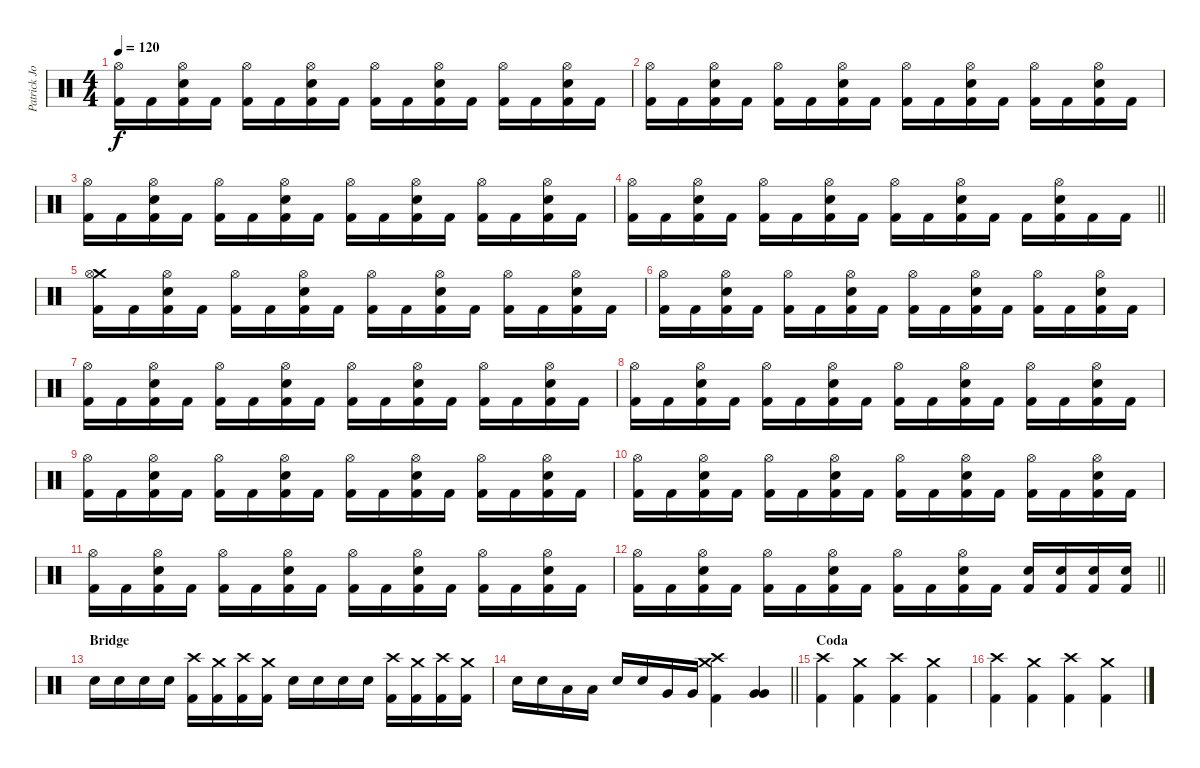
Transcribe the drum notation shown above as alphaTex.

\track ("Patrick Johansson" "Patrick Jo") {instrument percussion}
\staff {score}
\articulation defaults
\ts (4 4)
\tempo 120
\clef neutral
\ks c
("Hi-Hat (open)" "Kick (hit) 2").16{dy f} "Kick (hit) 2".16 ("Hi-Hat (open)" "Snare (hit) 2" "Kick (hit) 2").16 "Kick (hit) 2".16 ("Hi-Hat (open)" "Kick (hit) 2").16 "Kick (hit) 2".16 ("Hi-Hat (open)" "Snare (hit) 2" "Kick (hit) 2").16 "Kick (hit) 2".16 ("Hi-Hat (open)" "Kick (hit) 2").16 "Kick (hit) 2".16 ("Hi-Hat (open)" "Snare (hit) 2" "Kick (hit) 2").16 "Kick (hit) 2".16 ("Hi-Hat (open)" "Kick (hit) 2").16 "Kick (hit) 2".16 ("Hi-Hat (open)" "Snare (hit) 2" "Kick (hit) 2").16 "Kick (hit) 2".16 |
("Hi-Hat (open)" "Kick (hit) 2").16 "Kick (hit) 2".16 ("Hi-Hat (open)" "Snare (hit) 2" "Kick (hit) 2").16 "Kick (hit) 2".16 ("Hi-Hat (open)" "Kick (hit) 2").16 "Kick (hit) 2".16 ("Hi-Hat (open)" "Snare (hit) 2" "Kick (hit) 2").16 "Kick (hit) 2".16 ("Hi-Hat (open)" "Kick (hit) 2").16 "Kick (hit) 2".16 ("Hi-Hat (open)" "Snare (hit) 2" "Kick (hit) 2").16 "Kick (hit) 2".16 ("Hi-Hat (open)" "Kick (hit) 2").16 "Kick (hit) 2".16 ("Hi-Hat (open)" "Snare (hit) 2" "Kick (hit) 2").16 "Kick (hit) 2".16 |
("Hi-Hat (open)" "Kick (hit) 2").16 "Kick (hit) 2".16 ("Hi-Hat (open)" "Snare (hit) 2" "Kick (hit) 2").16 "Kick (hit) 2".16 ("Hi-Hat (open)" "Kick (hit) 2").16 "Kick (hit) 2".16 ("Hi-Hat (open)" "Snare (hit) 2" "Kick (hit) 2").16 "Kick (hit) 2".16 ("Hi-Hat (open)" "Kick (hit) 2").16 "Kick (hit) 2".16 ("Hi-Hat (open)" "Snare (hit) 2" "Kick (hit) 2").16 "Kick (hit) 2".16 ("Hi-Hat (open)" "Kick (hit) 2").16 "Kick (hit) 2".16 ("Hi-Hat (open)" "Snare (hit) 2" "Kick (hit) 2").16 "Kick (hit) 2".16 |
\barLineRight lightlight
("Hi-Hat (open)" "Kick (hit) 2").16 "Kick (hit) 2".16 ("Hi-Hat (open)" "Snare (hit) 2" "Kick (hit) 2").16 "Kick (hit) 2".16 ("Hi-Hat (open)" "Kick (hit) 2").16 "Kick (hit) 2".16 ("Hi-Hat (open)" "Snare (hit) 2" "Kick (hit) 2").16 "Kick (hit) 2".16 ("Hi-Hat (open)" "Kick (hit) 2").16 "Kick (hit) 2".16 ("Hi-Hat (open)" "Snare (hit) 2" "Kick (hit) 2").16 "Kick (hit) 2".16 "Kick (hit) 2".16 ("Hi-Hat (open)" "Snare (hit) 2" "Kick (hit) 2").16 "Kick (hit) 2".16 "Kick (hit) 2".16 |
("Crash medium (hit)" "Hi-Hat (open)" "Kick (hit) 2").16 "Kick (hit) 2".16 ("Hi-Hat (open)" "Snare (hit) 2" "Kick (hit) 2").16 "Kick (hit) 2".16 ("Hi-Hat (open)" "Kick (hit) 2").16 "Kick (hit) 2".16 ("Hi-Hat (open)" "Snare (hit) 2" "Kick (hit) 2").16 "Kick (hit) 2".16 ("Hi-Hat (open)" "Kick (hit) 2").16 "Kick (hit) 2".16 ("Hi-Hat (open)" "Snare (hit) 2" "Kick (hit) 2").16 "Kick (hit) 2".16 ("Hi-Hat (open)" "Kick (hit) 2").16 "Kick (hit) 2".16 ("Hi-Hat (open)" "Snare (hit) 2" "Kick (hit) 2").16 "Kick (hit) 2".16 |
("Hi-Hat (open)" "Kick (hit) 2").16 "Kick (hit) 2".16 ("Hi-Hat (open)" "Snare (hit) 2" "Kick (hit) 2").16 "Kick (hit) 2".16 ("Hi-Hat (open)" "Kick (hit) 2").16 "Kick (hit) 2".16 ("Hi-Hat (open)" "Snare (hit) 2" "Kick (hit) 2").16 "Kick (hit) 2".16 ("Hi-Hat (open)" "Kick (hit) 2").16 "Kick (hit) 2".16 ("Hi-Hat (open)" "Snare (hit) 2" "Kick (hit) 2").16 "Kick (hit) 2".16 ("Hi-Hat (open)" "Kick (hit) 2").16 "Kick (hit) 2".16 ("Hi-Hat (open)" "Snare (hit) 2" "Kick (hit) 2").16 "Kick (hit) 2".16 |
("Hi-Hat (open)" "Kick (hit) 2").16 "Kick (hit) 2".16 ("Hi-Hat (open)" "Snare (hit) 2" "Kick (hit) 2").16 "Kick (hit) 2".16 ("Hi-Hat (open)" "Kick (hit) 2").16 "Kick (hit) 2".16 ("Hi-Hat (open)" "Snare (hit) 2" "Kick (hit) 2").16 "Kick (hit) 2".16 ("Hi-Hat (open)" "Kick (hit) 2").16 "Kick (hit) 2".16 ("Hi-Hat (open)" "Snare (hit) 2" "Kick (hit) 2").16 "Kick (hit) 2".16 ("Hi-Hat (open)" "Kick (hit) 2").16 "Kick (hit) 2".16 ("Hi-Hat (open)" "Snare (hit) 2" "Kick (hit) 2").16 "Kick (hit) 2".16 |
("Hi-Hat (open)" "Kick (hit) 2").16 "Kick (hit) 2".16 ("Hi-Hat (open)" "Snare (hit) 2" "Kick (hit) 2").16 "Kick (hit) 2".16 ("Hi-Hat (open)" "Kick (hit) 2").16 "Kick (hit) 2".16 ("Hi-Hat (open)" "Snare (hit) 2" "Kick (hit) 2").16 "Kick (hit) 2".16 ("Hi-Hat (open)" "Kick (hit) 2").16 "Kick (hit) 2".16 ("Hi-Hat (open)" "Snare (hit) 2" "Kick (hit) 2").16 "Kick (hit) 2".16 ("Hi-Hat (open)" "Kick (hit) 2").16 "Kick (hit) 2".16 ("Hi-Hat (open)" "Snare (hit) 2" "Kick (hit) 2").16 "Kick (hit) 2".16 |
("Hi-Hat (open)" "Kick (hit) 2").16 "Kick (hit) 2".16 ("Hi-Hat (open)" "Snare (hit) 2" "Kick (hit) 2").16 "Kick (hit) 2".16 ("Hi-Hat (open)" "Kick (hit) 2").16 "Kick (hit) 2".16 ("Hi-Hat (open)" "Snare (hit) 2" "Kick (hit) 2").16 "Kick (hit) 2".16 ("Hi-Hat (open)" "Kick (hit) 2").16 "Kick (hit) 2".16 ("Hi-Hat (open)" "Snare (hit) 2" "Kick (hit) 2").16 "Kick (hit) 2".16 ("Hi-Hat (open)" "Kick (hit) 2").16 "Kick (hit) 2".16 ("Hi-Hat (open)" "Snare (hit) 2" "Kick (hit) 2").16 "Kick (hit) 2".16 |
("Hi-Hat (open)" "Kick (hit) 2").16 "Kick (hit) 2".16 ("Hi-Hat (open)" "Snare (hit) 2" "Kick (hit) 2").16 "Kick (hit) 2".16 ("Hi-Hat (open)" "Kick (hit) 2").16 "Kick (hit) 2".16 ("Hi-Hat (open)" "Snare (hit) 2" "Kick (hit) 2").16 "Kick (hit) 2".16 ("Hi-Hat (open)" "Kick (hit) 2").16 "Kick (hit) 2".16 ("Hi-Hat (open)" "Snare (hit) 2" "Kick (hit) 2").16 "Kick (hit) 2".16 ("Hi-Hat (open)" "Kick (hit) 2").16 "Kick (hit) 2".16 ("Hi-Hat (open)" "Snare (hit) 2" "Kick (hit) 2").16 "Kick (hit) 2".16 |
("Hi-Hat (open)" "Kick (hit) 2").16 "Kick (hit) 2".16 ("Hi-Hat (open)" "Snare (hit) 2" "Kick (hit) 2").16 "Kick (hit) 2".16 ("Hi-Hat (open)" "Kick (hit) 2").16 "Kick (hit) 2".16 ("Hi-Hat (open)" "Snare (hit) 2" "Kick (hit) 2").16 "Kick (hit) 2".16 ("Hi-Hat (open)" "Kick (hit) 2").16 "Kick (hit) 2".16 ("Hi-Hat (open)" "Snare (hit) 2" "Kick (hit) 2").16 "Kick (hit) 2".16 ("Hi-Hat (open)" "Kick (hit) 2").16 "Kick (hit) 2".16 ("Hi-Hat (open)" "Snare (hit) 2" "Kick (hit) 2").16 "Kick (hit) 2".16 |
\barLineRight lightlight
("Hi-Hat (open)" "Kick (hit) 2").16 "Kick (hit) 2".16 ("Hi-Hat (open)" "Snare (hit) 2" "Kick (hit) 2").16 "Kick (hit) 2".16 ("Hi-Hat (open)" "Kick (hit) 2").16 "Kick (hit) 2".16 ("Hi-Hat (open)" "Snare (hit) 2" "Kick (hit) 2").16 "Kick (hit) 2".16 ("Hi-Hat (open)" "Kick (hit) 2").16 "Kick (hit) 2".16 ("Hi-Hat (open)" "Snare (hit) 2" "Kick (hit) 2").16 "Kick (hit) 2".16 ("Snare (hit) 2" "Kick (hit) 2").16 ("Snare (hit) 2" "Kick (hit) 2").16 ("Snare (hit) 2" "Kick (hit) 2").16 ("Snare (hit) 2" "Kick (hit) 2").16 |
\section ("" "Bridge")
"Snare (hit) 2".16 "Snare (hit) 2".16 "Snare (hit) 2".16 "Snare (hit) 2".16 ("Crash high (hit)" "Kick (hit) 2").16 ("Crash medium (hit)" "Kick (hit) 2").16 ("Crash high (hit)" "Kick (hit) 2").16 ("Crash medium (hit)" "Kick (hit) 2").16 "Snare (hit) 2".16 "Snare (hit) 2".16 "Snare (hit) 2".16 "Snare (hit) 2".16 ("Crash high (hit)" "Kick (hit) 2").16 ("Crash medium (hit)" "Kick (hit) 2").16 ("Crash high (hit)" "Kick (hit) 2").16 ("Crash medium (hit)" "Kick (hit) 2").16 |
\barLineRight lightlight "Snare (hit) 2".16 "Snare (hit) 2".16 "Low Tom (hit)".16 "Low Tom (hit)".16 "Snare (hit) 2".16 "Snare (hit) 2".16 "Very Low Tom (hit)".16 "Very Low Tom (hit)".16
("Crash medium (hit)" "Crash high (hit)" "Kick (hit) 2").4 ("Very Low Tom (hit)" "Very Low Tom (hit)").4 |
\section ("" "Coda")
("Crash high (hit)" "Kick (hit) 2").4 ("Crash medium (hit)" "Kick (hit) 2").4 ("Crash high (hit)" "Kick (hit) 2").4 ("Crash medium (hit)" "Kick (hit) 2").4 |
("Crash high (hit)" "Kick (hit) 2").4 ("Crash medium (hit)" "Kick (hit) 2").4 ("Crash high (hit)" "Kick (hit) 2").4 ("Crash medium (hit)" "Kick (hit) 2").4
